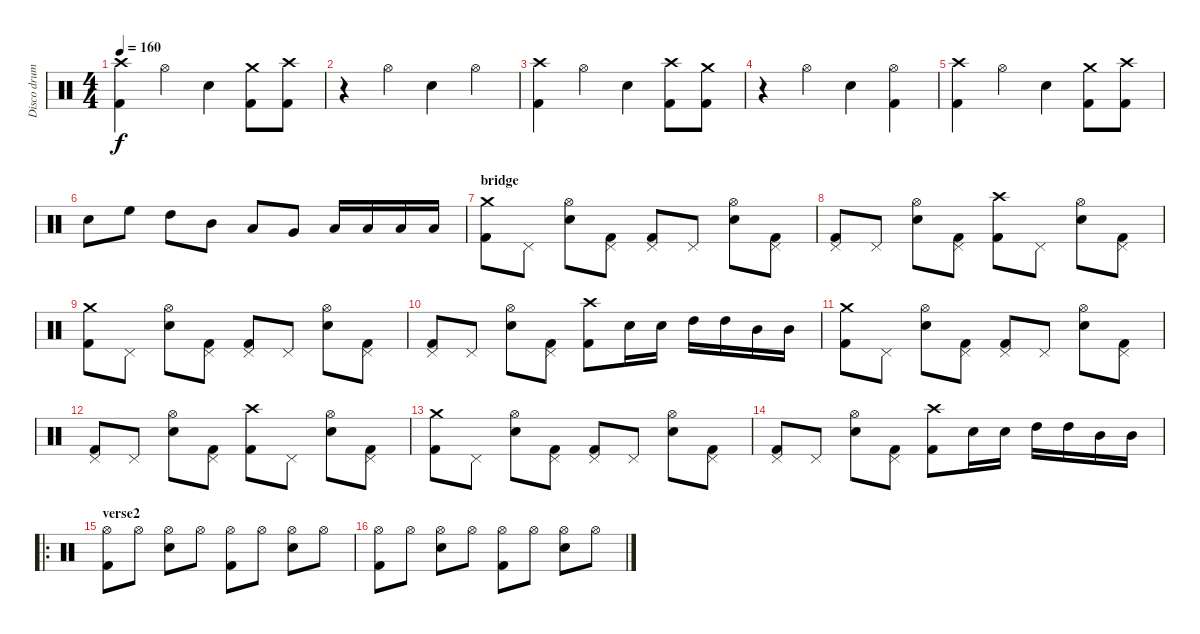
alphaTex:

\track ("Disco drum" "Disco drum") {instrument percussion}
\staff {score}
\articulation defaults
\ts (4 4)
\tempo 160
\clef neutral
\ks c
("Crash high (hit)" "Kick (hit) 2").4{dy f} "Hi-Hat (open)".4 "Electric Snare (hit)".4 ("Crash medium (hit)" "Kick (hit) 2").8 ("Crash high (hit)" "Kick (hit) 2").8 |
r.4 "Hi-Hat (open)".4 "Electric Snare (hit)".4 "Hi-Hat (open)".4 |
("Crash high (hit)" "Kick (hit) 2").4 "Hi-Hat (open)".4 "Electric Snare (hit)".4 ("Crash high (hit)" "Kick (hit) 2").8 ("Crash medium (hit)" "Kick (hit) 2").8 |
r.4 "Hi-Hat (open)".4 "Electric Snare (hit)".4 ("Hi-Hat (open)" "Kick (hit) 2").4 |
("Crash high (hit)" "Kick (hit) 2").4 "Hi-Hat (open)".4 "Electric Snare (hit)".4 ("Crash medium (hit)" "Kick (hit) 2").8 ("Crash high (hit)" "Kick (hit) 2").8 |
"Electric Snare (hit)".8 "High Floor Tom (hit)".8 "High Tom (hit)".8 "Mid Tom (hit)".8 "Low Tom (hit)".8 "Very Low Tom (hit)".8 "Low Floor Tom (hit)".16 "Low Floor Tom (hit)".16 "Low Floor Tom (hit)".16 "Low Floor Tom (hit)".16 |
\section ("" "bridge")
("Crash medium (hit)" "Kick (hit) 2").8 "Pedal Hi-Hat (hit)".8 ("Hi-Hat (open)" "Electric Snare (hit)").8 ("Pedal Hi-Hat (hit)" "Kick (hit) 2").8 ("Pedal Hi-Hat (hit)" "Kick (hit) 2").8 "Pedal Hi-Hat (hit)".8 ("Hi-Hat (open)" "Electric Snare (hit)").8 ("Pedal Hi-Hat (hit)" "Kick (hit) 2").8 |
("Pedal Hi-Hat (hit)" "Kick (hit) 2").8 "Pedal Hi-Hat (hit)".8 ("Hi-Hat (open)" "Electric Snare (hit)").8 ("Pedal Hi-Hat (hit)" "Kick (hit) 2").8 ("Crash high (hit)" "Kick (hit) 2").8 "Pedal Hi-Hat (hit)".8 ("Hi-Hat (open)" "Electric Snare (hit)").8 ("Pedal Hi-Hat (hit)" "Kick (hit) 2").8 |
("Crash medium (hit)" "Kick (hit) 2").8 "Pedal Hi-Hat (hit)".8 ("Hi-Hat (open)" "Electric Snare (hit)").8 ("Pedal Hi-Hat (hit)" "Kick (hit) 2").8 ("Pedal Hi-Hat (hit)" "Kick (hit) 2").8 "Pedal Hi-Hat (hit)".8 ("Hi-Hat (open)" "Electric Snare (hit)").8 ("Pedal Hi-Hat (hit)" "Kick (hit) 2").8 |
("Pedal Hi-Hat (hit)" "Kick (hit) 2").8 "Pedal Hi-Hat (hit)".8 ("Hi-Hat (open)" "Electric Snare (hit)").8 ("Pedal Hi-Hat (hit)" "Kick (hit) 2").8 ("Crash high (hit)" "Kick (hit) 2").8 "Electric Snare (hit)".16 "Electric Snare (hit)".16 "High Tom (hit)".16 "High Tom (hit)".16 "Mid Tom (hit)".16 "Mid Tom (hit)".16 |
("Crash medium (hit)" "Kick (hit) 2").8 "Pedal Hi-Hat (hit)".8 ("Hi-Hat (open)" "Electric Snare (hit)").8 ("Pedal Hi-Hat (hit)" "Kick (hit) 2").8 ("Pedal Hi-Hat (hit)" "Kick (hit) 2").8 "Pedal Hi-Hat (hit)".8 ("Hi-Hat (open)" "Electric Snare (hit)").8 ("Pedal Hi-Hat (hit)" "Kick (hit) 2").8 |
("Pedal Hi-Hat (hit)" "Kick (hit) 2").8 "Pedal Hi-Hat (hit)".8 ("Hi-Hat (open)" "Electric Snare (hit)").8 ("Pedal Hi-Hat (hit)" "Kick (hit) 2").8 ("Crash high (hit)" "Kick (hit) 2").8 "Pedal Hi-Hat (hit)".8 ("Hi-Hat (open)" "Electric Snare (hit)").8 ("Pedal Hi-Hat (hit)" "Kick (hit) 2").8 |
("Crash medium (hit)" "Kick (hit) 2").8 "Pedal Hi-Hat (hit)".8 ("Hi-Hat (open)" "Electric Snare (hit)").8 ("Pedal Hi-Hat (hit)" "Kick (hit) 2").8 ("Pedal Hi-Hat (hit)" "Kick (hit) 2").8 "Pedal Hi-Hat (hit)".8 ("Hi-Hat (open)" "Electric Snare (hit)").8 ("Pedal Hi-Hat (hit)" "Kick (hit) 2").8 |
("Pedal Hi-Hat (hit)" "Kick (hit) 2").8 "Pedal Hi-Hat (hit)".8 ("Hi-Hat (open)" "Electric Snare (hit)").8 ("Pedal Hi-Hat (hit)" "Kick (hit) 2").8 ("Crash high (hit)" "Kick (hit) 2").8 "Electric Snare (hit)".16 "Electric Snare (hit)".16 "High Tom (hit)".16 "High Tom (hit)".16 "Mid Tom (hit)".16 "Mid Tom (hit)".16 |
\ro
\section ("" "verse2")
("Hi-Hat (open)" "Kick (hit) 2").8 "Hi-Hat (open)".8 ("Hi-Hat (open)" "Electric Snare (hit)").8 "Hi-Hat (open)".8 ("Hi-Hat (open)" "Kick (hit) 2").8 "Hi-Hat (open)".8 ("Hi-Hat (open)" "Electric Snare (hit)").8 "Hi-Hat (open)".8 |
("Hi-Hat (open)" "Kick (hit) 2").8 "Hi-Hat (open)".8 ("Hi-Hat (open)" "Electric Snare (hit)").8 "Hi-Hat (open)".8 ("Hi-Hat (open)" "Kick (hit) 2").8 "Hi-Hat (open)".8 ("Hi-Hat (open)" "Electric Snare (hit)").8 "Hi-Hat (open)".8
